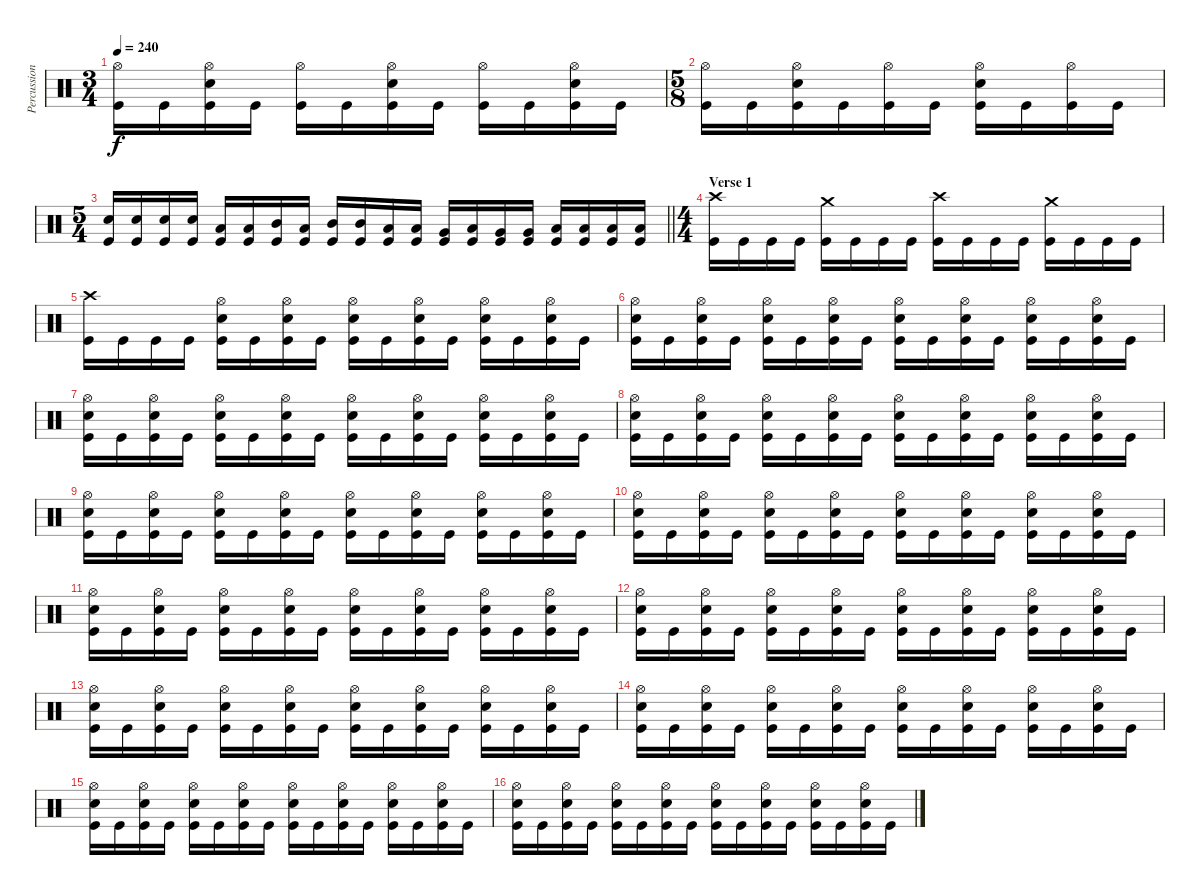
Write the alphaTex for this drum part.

\track ("Percussion" "Percussion") {instrument percussion}
\staff {score}
\articulation defaults
\ts (3 4)
\tempo 240
\clef neutral
\ks c
("Hi-Hat (open)" "Kick (hit)").16{dy f} "Kick (hit)".16 ("Hi-Hat (open)" "Snare (hit) 2" "Kick (hit)").16 "Kick (hit)".16 ("Hi-Hat (open)" "Kick (hit)").16 "Kick (hit)".16 ("Hi-Hat (open)" "Snare (hit) 2" "Kick (hit)").16 "Kick (hit)".16 ("Hi-Hat (open)" "Kick (hit)").16 "Kick (hit)".16 ("Hi-Hat (open)" "Snare (hit) 2" "Kick (hit)").16 "Kick (hit)".16 |
\ts (5 8)
("Hi-Hat (open)" "Kick (hit)").16 "Kick (hit)".16 ("Hi-Hat (open)" "Snare (hit) 2" "Kick (hit)").16 "Kick (hit)".16 ("Hi-Hat (open)" "Kick (hit)").16 "Kick (hit)".16 ("Hi-Hat (open)" "Snare (hit) 2" "Kick (hit)").16 "Kick (hit)".16 ("Hi-Hat (open)" "Kick (hit)").16 "Kick (hit)".16 |
\ts (5 4)
\barLineRight lightlight
("Snare (hit) 2" "Kick (hit)").16 ("Snare (hit) 2" "Kick (hit)").16 ("Snare (hit) 2" "Kick (hit)").16 ("Snare (hit) 2" "Kick (hit)").16 ("Low Tom (hit)" "Kick (hit)").16 ("Low Tom (hit)" "Kick (hit)").16 ("Mid Tom (hit)" "Kick (hit)").16 ("Low Tom (hit)" "Kick (hit)").16 ("Mid Tom (hit)" "Kick (hit)").16 ("Mid Tom (hit)" "Kick (hit)").16 ("Low Tom (hit)" "Kick (hit)").16 ("Low Tom (hit)" "Kick (hit)").16 ("Very Low Tom (hit)" "Kick (hit)").16 ("Low Tom (hit)" "Kick (hit)").16 ("Very Low Tom (hit)" "Kick (hit)").16 ("Very Low Tom (hit)" "Kick (hit)").16 ("Low Tom (hit)" "Kick (hit)").16 ("Low Tom (hit)" "Kick (hit)").16 ("Low Floor Tom (hit)" "Kick (hit)").16 ("Low Tom (hit)" "Kick (hit)").16 |
\ts (4 4)
\section ("" "Verse 1")
("Crash high (hit)" "Kick (hit)").16 "Kick (hit)".16 "Kick (hit)".16 "Kick (hit)".16 ("Crash medium (hit)" "Kick (hit)").16 "Kick (hit)".16 "Kick (hit)".16 "Kick (hit)".16 ("Crash high (hit)" "Kick (hit)").16 "Kick (hit)".16 "Kick (hit)".16 "Kick (hit)".16 ("Crash medium (hit)" "Kick (hit)").16 "Kick (hit)".16 "Kick (hit)".16 "Kick (hit)".16 |
("Crash high (hit)" "Kick (hit)").16 "Kick (hit)".16 "Kick (hit)".16 "Kick (hit)".16 ("Hi-Hat (open)" "Snare (hit) 2" "Kick (hit)").16 "Kick (hit)".16 ("Hi-Hat (open)" "Snare (hit) 2" "Kick (hit)").16 "Kick (hit)".16 ("Hi-Hat (open)" "Snare (hit) 2" "Kick (hit)").16 "Kick (hit)".16 ("Hi-Hat (open)" "Snare (hit) 2" "Kick (hit)").16 "Kick (hit)".16 ("Hi-Hat (open)" "Snare (hit) 2" "Kick (hit)").16 "Kick (hit)".16 ("Hi-Hat (open)" "Snare (hit) 2" "Kick (hit)").16 "Kick (hit)".16 |
("Hi-Hat (open)" "Snare (hit) 2" "Kick (hit)").16 "Kick (hit)".16 ("Hi-Hat (open)" "Snare (hit) 2" "Kick (hit)").16 "Kick (hit)".16 ("Hi-Hat (open)" "Snare (hit) 2" "Kick (hit)").16 "Kick (hit)".16 ("Hi-Hat (open)" "Snare (hit) 2" "Kick (hit)").16 "Kick (hit)".16 ("Hi-Hat (open)" "Snare (hit) 2" "Kick (hit)").16 "Kick (hit)".16 ("Hi-Hat (open)" "Snare (hit) 2" "Kick (hit)").16 "Kick (hit)".16 ("Hi-Hat (open)" "Snare (hit) 2" "Kick (hit)").16 "Kick (hit)".16 ("Hi-Hat (open)" "Snare (hit) 2" "Kick (hit)").16 "Kick (hit)".16 |
("Hi-Hat (open)" "Snare (hit) 2" "Kick (hit)").16 "Kick (hit)".16 ("Hi-Hat (open)" "Snare (hit) 2" "Kick (hit)").16 "Kick (hit)".16 ("Hi-Hat (open)" "Snare (hit) 2" "Kick (hit)").16 "Kick (hit)".16 ("Hi-Hat (open)" "Snare (hit) 2" "Kick (hit)").16 "Kick (hit)".16 ("Hi-Hat (open)" "Snare (hit) 2" "Kick (hit)").16 "Kick (hit)".16 ("Hi-Hat (open)" "Snare (hit) 2" "Kick (hit)").16 "Kick (hit)".16 ("Hi-Hat (open)" "Snare (hit) 2" "Kick (hit)").16 "Kick (hit)".16 ("Hi-Hat (open)" "Snare (hit) 2" "Kick (hit)").16 "Kick (hit)".16 |
("Hi-Hat (open)" "Snare (hit) 2" "Kick (hit)").16 "Kick (hit)".16 ("Hi-Hat (open)" "Snare (hit) 2" "Kick (hit)").16 "Kick (hit)".16 ("Hi-Hat (open)" "Snare (hit) 2" "Kick (hit)").16 "Kick (hit)".16 ("Hi-Hat (open)" "Snare (hit) 2" "Kick (hit)").16 "Kick (hit)".16 ("Hi-Hat (open)" "Snare (hit) 2" "Kick (hit)").16 "Kick (hit)".16 ("Hi-Hat (open)" "Snare (hit) 2" "Kick (hit)").16 "Kick (hit)".16 ("Hi-Hat (open)" "Snare (hit) 2" "Kick (hit)").16 "Kick (hit)".16 ("Hi-Hat (open)" "Snare (hit) 2" "Kick (hit)").16 "Kick (hit)".16 |
("Hi-Hat (open)" "Snare (hit) 2" "Kick (hit)").16 "Kick (hit)".16 ("Hi-Hat (open)" "Snare (hit) 2" "Kick (hit)").16 "Kick (hit)".16 ("Hi-Hat (open)" "Snare (hit) 2" "Kick (hit)").16 "Kick (hit)".16 ("Hi-Hat (open)" "Snare (hit) 2" "Kick (hit)").16 "Kick (hit)".16 ("Hi-Hat (open)" "Snare (hit) 2" "Kick (hit)").16 "Kick (hit)".16 ("Hi-Hat (open)" "Snare (hit) 2" "Kick (hit)").16 "Kick (hit)".16 ("Hi-Hat (open)" "Snare (hit) 2" "Kick (hit)").16 "Kick (hit)".16 ("Hi-Hat (open)" "Snare (hit) 2" "Kick (hit)").16 "Kick (hit)".16 |
("Hi-Hat (open)" "Snare (hit) 2" "Kick (hit)").16 "Kick (hit)".16 ("Hi-Hat (open)" "Snare (hit) 2" "Kick (hit)").16 "Kick (hit)".16 ("Hi-Hat (open)" "Snare (hit) 2" "Kick (hit)").16 "Kick (hit)".16 ("Hi-Hat (open)" "Snare (hit) 2" "Kick (hit)").16 "Kick (hit)".16 ("Hi-Hat (open)" "Snare (hit) 2" "Kick (hit)").16 "Kick (hit)".16 ("Hi-Hat (open)" "Snare (hit) 2" "Kick (hit)").16 "Kick (hit)".16 ("Hi-Hat (open)" "Snare (hit) 2" "Kick (hit)").16 "Kick (hit)".16 ("Hi-Hat (open)" "Snare (hit) 2" "Kick (hit)").16 "Kick (hit)".16 |
("Hi-Hat (open)" "Snare (hit) 2" "Kick (hit)").16 "Kick (hit)".16 ("Hi-Hat (open)" "Snare (hit) 2" "Kick (hit)").16 "Kick (hit)".16 ("Hi-Hat (open)" "Snare (hit) 2" "Kick (hit)").16 "Kick (hit)".16 ("Hi-Hat (open)" "Snare (hit) 2" "Kick (hit)").16 "Kick (hit)".16 ("Hi-Hat (open)" "Snare (hit) 2" "Kick (hit)").16 "Kick (hit)".16 ("Hi-Hat (open)" "Snare (hit) 2" "Kick (hit)").16 "Kick (hit)".16 ("Hi-Hat (open)" "Snare (hit) 2" "Kick (hit)").16 "Kick (hit)".16 ("Hi-Hat (open)" "Snare (hit) 2" "Kick (hit)").16 "Kick (hit)".16 |
("Hi-Hat (open)" "Snare (hit) 2" "Kick (hit)").16 "Kick (hit)".16 ("Hi-Hat (open)" "Snare (hit) 2" "Kick (hit)").16 "Kick (hit)".16 ("Hi-Hat (open)" "Snare (hit) 2" "Kick (hit)").16 "Kick (hit)".16 ("Hi-Hat (open)" "Snare (hit) 2" "Kick (hit)").16 "Kick (hit)".16 ("Hi-Hat (open)" "Snare (hit) 2" "Kick (hit)").16 "Kick (hit)".16 ("Hi-Hat (open)" "Snare (hit) 2" "Kick (hit)").16 "Kick (hit)".16 ("Hi-Hat (open)" "Snare (hit) 2" "Kick (hit)").16 "Kick (hit)".16 ("Hi-Hat (open)" "Snare (hit) 2" "Kick (hit)").16 "Kick (hit)".16 |
("Hi-Hat (open)" "Snare (hit) 2" "Kick (hit)").16 "Kick (hit)".16 ("Hi-Hat (open)" "Snare (hit) 2" "Kick (hit)").16 "Kick (hit)".16 ("Hi-Hat (open)" "Snare (hit) 2" "Kick (hit)").16 "Kick (hit)".16 ("Hi-Hat (open)" "Snare (hit) 2" "Kick (hit)").16 "Kick (hit)".16 ("Hi-Hat (open)" "Snare (hit) 2" "Kick (hit)").16 "Kick (hit)".16 ("Hi-Hat (open)" "Snare (hit) 2" "Kick (hit)").16 "Kick (hit)".16 ("Hi-Hat (open)" "Snare (hit) 2" "Kick (hit)").16 "Kick (hit)".16 ("Hi-Hat (open)" "Snare (hit) 2" "Kick (hit)").16 "Kick (hit)".16 |
("Hi-Hat (open)" "Snare (hit) 2" "Kick (hit)").16 "Kick (hit)".16 ("Hi-Hat (open)" "Snare (hit) 2" "Kick (hit)").16 "Kick (hit)".16 ("Hi-Hat (open)" "Snare (hit) 2" "Kick (hit)").16 "Kick (hit)".16 ("Hi-Hat (open)" "Snare (hit) 2" "Kick (hit)").16 "Kick (hit)".16 ("Hi-Hat (open)" "Snare (hit) 2" "Kick (hit)").16 "Kick (hit)".16 ("Hi-Hat (open)" "Snare (hit) 2" "Kick (hit)").16 "Kick (hit)".16 ("Hi-Hat (open)" "Snare (hit) 2" "Kick (hit)").16 "Kick (hit)".16 ("Hi-Hat (open)" "Snare (hit) 2" "Kick (hit)").16 "Kick (hit)".16 |
("Hi-Hat (open)" "Snare (hit) 2" "Kick (hit)").16 "Kick (hit)".16 ("Hi-Hat (open)" "Snare (hit) 2" "Kick (hit)").16 "Kick (hit)".16 ("Hi-Hat (open)" "Snare (hit) 2" "Kick (hit)").16 "Kick (hit)".16 ("Hi-Hat (open)" "Snare (hit) 2" "Kick (hit)").16 "Kick (hit)".16 ("Hi-Hat (open)" "Snare (hit) 2" "Kick (hit)").16 "Kick (hit)".16 ("Hi-Hat (open)" "Snare (hit) 2" "Kick (hit)").16 "Kick (hit)".16 ("Hi-Hat (open)" "Snare (hit) 2" "Kick (hit)").16 "Kick (hit)".16 ("Hi-Hat (open)" "Snare (hit) 2" "Kick (hit)").16 "Kick (hit)".16 |
("Hi-Hat (open)" "Snare (hit) 2" "Kick (hit)").16 "Kick (hit)".16 ("Hi-Hat (open)" "Snare (hit) 2" "Kick (hit)").16 "Kick (hit)".16 ("Hi-Hat (open)" "Snare (hit) 2" "Kick (hit)").16 "Kick (hit)".16 ("Hi-Hat (open)" "Snare (hit) 2" "Kick (hit)").16 "Kick (hit)".16 ("Hi-Hat (open)" "Snare (hit) 2" "Kick (hit)").16 "Kick (hit)".16 ("Hi-Hat (open)" "Snare (hit) 2" "Kick (hit)").16 "Kick (hit)".16 ("Hi-Hat (open)" "Snare (hit) 2" "Kick (hit)").16 "Kick (hit)".16 ("Hi-Hat (open)" "Snare (hit) 2" "Kick (hit)").16 "Kick (hit)".16
